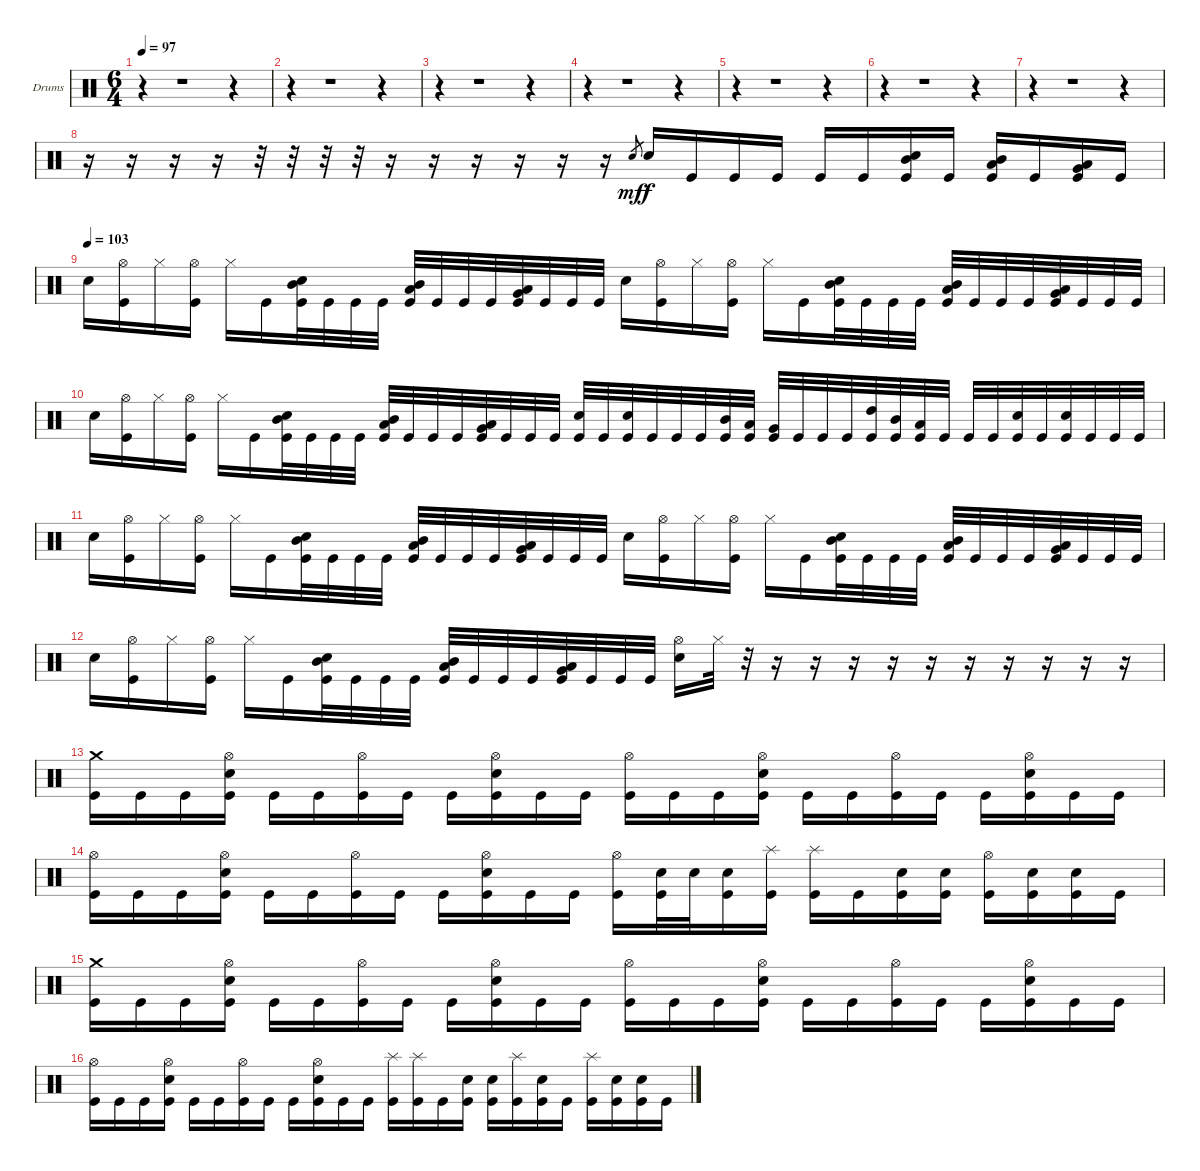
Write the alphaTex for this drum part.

\bracketExtendMode groupsimilarinstruments
\firstSystemTrackNameOrientation horizontal
\otherSystemsTrackNameOrientation horizontal
\track ("Drumkit" "Drums") {instrument percussion}
\staff {score}
\articulation defaults
\ts (6 4)
\tempo 97
\clef neutral
\ks c
r.4{dy mf} r.1 r.4 |
r.4 r.1 r.4 |
r.4 r.1 r.4 |
r.4 r.1 r.4 |
r.4 r.1 r.4 |
r.4 r.1 r.4 |
r.4 r.1 r.4 |
r.16 r.16 r.16 r.16 r.32 r.32 r.32 r.32 r.16 r.16 r.16 r.16 r.16 r.16 "Snare (hit) 2".8{gr} "Snare (hit) 2".16{dy f} "Kick (hit)".16 "Kick (hit)".16 "Kick (hit)".16 "Kick (hit)".16 "Kick (hit)".16 ("Snare (hit) 2" "Mid Tom (hit)" "Kick (hit)").16 "Kick (hit)".16 ("Mid Tom (hit)" "Low Tom (hit)" "Kick (hit)").16 "Kick (hit)".16 ("Low Tom (hit)" "Very Low Tom (hit)" "Kick (hit)").16 "Kick (hit)".16 |
\tempo (103)
"Snare (hit) 2".16 ("Hi-Hat (open)" "Kick (hit)").16 "Hi-Hat (closed)".16 ("Hi-Hat (open)" "Kick (hit)").16 "Hi-Hat (closed)".16 "Kick (hit)".16 ("Snare (hit) 2" "Mid Tom (hit)" "Kick (hit)").32 "Kick (hit)".32 "Kick (hit)".32 "Kick (hit)".32 ("Mid Tom (hit)" "Low Tom (hit)" "Kick (hit)").32 "Kick (hit)".32 "Kick (hit)".32 "Kick (hit)".32 ("Low Tom (hit)" "Very Low Tom (hit)" "Kick (hit)").32 "Kick (hit)".32 "Kick (hit)".32 "Kick (hit)".32 "Snare (hit) 2".16 ("Hi-Hat (open)" "Kick (hit)").16 "Hi-Hat (closed)".16 ("Hi-Hat (open)" "Kick (hit)").16 "Hi-Hat (closed)".16 "Kick (hit)".16 ("Snare (hit) 2" "Mid Tom (hit)" "Kick (hit)").32 "Kick (hit)".32 "Kick (hit)".32 "Kick (hit)".32 ("Mid Tom (hit)" "Low Tom (hit)" "Kick (hit)").32 "Kick (hit)".32 "Kick (hit)".32 "Kick (hit)".32 ("Low Tom (hit)" "Very Low Tom (hit)" "Kick (hit)").32 "Kick (hit)".32 "Kick (hit)".32 "Kick (hit)".32 |
"Snare (hit) 2".16 ("Hi-Hat (open)" "Kick (hit)").16 "Hi-Hat (closed)".16 ("Hi-Hat (open)" "Kick (hit)").16 "Hi-Hat (closed)".16 "Kick (hit)".16 ("Snare (hit) 2" "Mid Tom (hit)" "Kick (hit)").32 "Kick (hit)".32 "Kick (hit)".32 "Kick (hit)".32 ("Mid Tom (hit)" "Low Tom (hit)" "Kick (hit)").32 "Kick (hit)".32 "Kick (hit)".32 "Kick (hit)".32 ("Low Tom (hit)" "Very Low Tom (hit)" "Kick (hit)").32 "Kick (hit)".32 "Kick (hit)".32 "Kick (hit)".32 ("Snare (hit) 2" "Kick (hit)").32 "Kick (hit)".32 ("Snare (hit) 2" "Kick (hit)").32 "Kick (hit)".32 "Kick (hit)".32 "Kick (hit)".32 ("Mid Tom (hit)" "Kick (hit)").32 ("Low Tom (hit)" "Kick (hit)").32 ("Very Low Tom (hit)" "Kick (hit)").32 "Kick (hit)".32 "Kick (hit)".32 "Kick (hit)".32 ("High Tom (hit)" "Kick (hit)").32 ("Mid Tom (hit)" "Kick (hit)").32 ("Low Tom (hit)" "Kick (hit)").32 "Kick (hit)".32 "Kick (hit)".32 "Kick (hit)".32 ("Snare (hit) 2" "Kick (hit)").32 "Kick (hit)".32 ("Snare (hit) 2" "Kick (hit)").32 "Kick (hit)".32 "Kick (hit)".32 "Kick (hit)".32 |
"Snare (hit) 2".16 ("Hi-Hat (open)" "Kick (hit)").16 "Hi-Hat (closed)".16 ("Hi-Hat (open)" "Kick (hit)").16 "Hi-Hat (closed)".16 "Kick (hit)".16 ("Snare (hit) 2" "Mid Tom (hit)" "Kick (hit)").32 "Kick (hit)".32 "Kick (hit)".32 "Kick (hit)".32 ("Mid Tom (hit)" "Low Tom (hit)" "Kick (hit)").32 "Kick (hit)".32 "Kick (hit)".32 "Kick (hit)".32 ("Low Tom (hit)" "Very Low Tom (hit)" "Kick (hit)").32 "Kick (hit)".32 "Kick (hit)".32 "Kick (hit)".32 "Snare (hit) 2".16 ("Hi-Hat (open)" "Kick (hit)").16 "Hi-Hat (closed)".16 ("Hi-Hat (open)" "Kick (hit)").16 "Hi-Hat (closed)".16 "Kick (hit)".16 ("Snare (hit) 2" "Mid Tom (hit)" "Kick (hit)").32 "Kick (hit)".32 "Kick (hit)".32 "Kick (hit)".32 ("Mid Tom (hit)" "Low Tom (hit)" "Kick (hit)").32 "Kick (hit)".32 "Kick (hit)".32 "Kick (hit)".32 ("Low Tom (hit)" "Very Low Tom (hit)" "Kick (hit)").32 "Kick (hit)".32 "Kick (hit)".32 "Kick (hit)".32 |
"Snare (hit) 2".16 ("Hi-Hat (open)" "Kick (hit)").16 "Hi-Hat (closed)".16 ("Hi-Hat (open)" "Kick (hit)").16 "Hi-Hat (closed)".16 "Kick (hit)".16 ("Snare (hit) 2" "Mid Tom (hit)" "Kick (hit)").32 "Kick (hit)".32 "Kick (hit)".32 "Kick (hit)".32 ("Mid Tom (hit)" "Low Tom (hit)" "Kick (hit)").32 "Kick (hit)".32 "Kick (hit)".32 "Kick (hit)".32 ("Low Tom (hit)" "Very Low Tom (hit)" "Kick (hit)").32 "Kick (hit)".32 "Kick (hit)".32 "Kick (hit)".32 ("Hi-Hat (open)" "Snare (hit) 2").16 "Hi-Hat (closed)".32 r.32 r.16 r.16 r.16 r.16 r.16 r.16 r.16 r.16 r.16 r.16 |
("Crash medium (hit)" "Kick (hit)").16 "Kick (hit)".16 "Kick (hit)".16 ("Hi-Hat (open)" "Snare (hit) 2" "Kick (hit)").16 "Kick (hit)".16 "Kick (hit)".16 ("Hi-Hat (open)" "Kick (hit)").16 "Kick (hit)".16 "Kick (hit)".16 ("Hi-Hat (open)" "Snare (hit) 2" "Kick (hit)").16 "Kick (hit)".16 "Kick (hit)".16 ("Hi-Hat (open)" "Kick (hit)").16 "Kick (hit)".16 "Kick (hit)".16 ("Hi-Hat (open)" "Snare (hit) 2" "Kick (hit)").16 "Kick (hit)".16 "Kick (hit)".16 ("Hi-Hat (open)" "Kick (hit)").16 "Kick (hit)".16 "Kick (hit)".16 ("Hi-Hat (open)" "Snare (hit) 2" "Kick (hit)").16 "Kick (hit)".16 "Kick (hit)".16 |
("Hi-Hat (open)" "Kick (hit)").16 "Kick (hit)".16 "Kick (hit)".16 ("Hi-Hat (open)" "Snare (hit) 2" "Kick (hit)").16 "Kick (hit)".16 "Kick (hit)".16 ("Hi-Hat (open)" "Kick (hit)").16 "Kick (hit)".16 "Kick (hit)".16 ("Hi-Hat (open)" "Snare (hit) 2" "Kick (hit)").16 "Kick (hit)".16 "Kick (hit)".16 ("Hi-Hat (open)" "Kick (hit)").16 ("Snare (hit) 2" "Kick (hit)").32 "Snare (hit) 2".32 ("Snare (hit) 2" "Kick (hit)").16 ("Splash (hit)" "Kick (hit)").16 ("Splash (hit)" "Kick (hit)").16 "Kick (hit)".16 ("Snare (hit) 2" "Kick (hit)").16 ("Snare (hit) 2" "Kick (hit)").16 ("Hi-Hat (open)" "Kick (hit)").16 ("Snare (hit) 2" "Kick (hit)").16 ("Snare (hit) 2" "Kick (hit)").16 "Kick (hit)".16 |
("Crash medium (hit)" "Kick (hit)").16 "Kick (hit)".16 "Kick (hit)".16 ("Hi-Hat (open)" "Snare (hit) 2" "Kick (hit)").16 "Kick (hit)".16 "Kick (hit)".16 ("Hi-Hat (open)" "Kick (hit)").16 "Kick (hit)".16 "Kick (hit)".16 ("Hi-Hat (open)" "Snare (hit) 2" "Kick (hit)").16 "Kick (hit)".16 "Kick (hit)".16 ("Hi-Hat (open)" "Kick (hit)").16 "Kick (hit)".16 "Kick (hit)".16 ("Hi-Hat (open)" "Snare (hit) 2" "Kick (hit)").16 "Kick (hit)".16 "Kick (hit)".16 ("Hi-Hat (open)" "Kick (hit)").16 "Kick (hit)".16 "Kick (hit)".16 ("Hi-Hat (open)" "Snare (hit) 2" "Kick (hit)").16 "Kick (hit)".16 "Kick (hit)".16 |
("Hi-Hat (open)" "Kick (hit)").16 "Kick (hit)".16 "Kick (hit)".16 ("Hi-Hat (open)" "Snare (hit) 2" "Kick (hit)").16 "Kick (hit)".16 "Kick (hit)".16 ("Hi-Hat (open)" "Kick (hit)").16 "Kick (hit)".16 "Kick (hit)".16 ("Hi-Hat (open)" "Snare (hit) 2" "Kick (hit)").16 "Kick (hit)".16 "Kick (hit)".16 ("Splash (hit)" "Kick (hit)").16 ("Splash (hit)" "Kick (hit)").16 "Kick (hit)".16 ("Snare (hit) 2" "Kick (hit)").16 ("Snare (hit) 2" "Kick (hit)").16 ("Splash (hit)" "Kick (hit)").16 ("Snare (hit) 2" "Kick (hit)").16 "Kick (hit)".16 ("Splash (hit)" "Kick (hit)").16 ("Snare (hit) 2" "Kick (hit)").16 ("Snare (hit) 2" "Kick (hit)").16 "Kick (hit)".16
